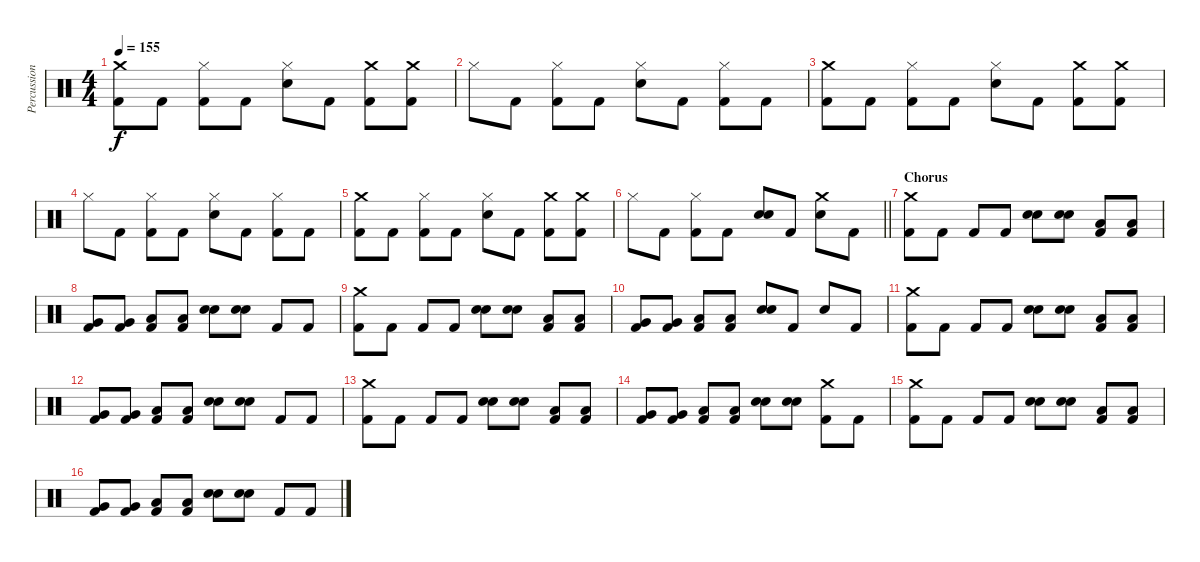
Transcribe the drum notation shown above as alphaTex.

\track ("Percussion" "Percussion") {instrument percussion}
\staff {score}
\articulation defaults
\ts (4 4)
\tempo 155
\clef neutral
\ks c
("Crash medium (hit)" "Kick (hit) 2").8{dy f} "Kick (hit) 2".8 ("Hi-Hat (closed)" "Kick (hit) 2").8 "Kick (hit) 2".8 ("Hi-Hat (closed)" "Electric Snare (hit)").8 "Kick (hit) 2".8 ("Crash medium (hit)" "Kick (hit) 2").8 ("Crash medium (hit)" "Kick (hit) 2").8 |
"Hi-Hat (closed)".8 "Kick (hit) 2".8 ("Hi-Hat (closed)" "Kick (hit) 2").8 "Kick (hit) 2".8 ("Hi-Hat (closed)" "Electric Snare (hit)").8 "Kick (hit) 2".8 ("Hi-Hat (closed)" "Kick (hit) 2").8 "Kick (hit) 2".8 |
("Crash medium (hit)" "Kick (hit) 2").8 "Kick (hit) 2".8 ("Hi-Hat (closed)" "Kick (hit) 2").8 "Kick (hit) 2".8 ("Hi-Hat (closed)" "Electric Snare (hit)").8 "Kick (hit) 2".8 ("Crash medium (hit)" "Kick (hit) 2").8 ("Crash medium (hit)" "Kick (hit) 2").8 |
"Hi-Hat (closed)".8 "Kick (hit) 2".8 ("Hi-Hat (closed)" "Kick (hit) 2").8 "Kick (hit) 2".8 ("Hi-Hat (closed)" "Electric Snare (hit)").8 "Kick (hit) 2".8 ("Hi-Hat (closed)" "Kick (hit) 2").8 "Kick (hit) 2".8 |
("Crash medium (hit)" "Kick (hit) 2").8 "Kick (hit) 2".8 ("Hi-Hat (closed)" "Kick (hit) 2").8 "Kick (hit) 2".8 ("Hi-Hat (closed)" "Electric Snare (hit)").8 "Kick (hit) 2".8 ("Crash medium (hit)" "Kick (hit) 2").8 ("Crash medium (hit)" "Kick (hit) 2").8 |
\barLineRight lightlight "Hi-Hat (closed)".8 "Kick (hit) 2".8
("Hi-Hat (closed)" "Kick (hit) 2").8 "Kick (hit) 2".8 ("Snare (hit) 2" "Electric Snare (hit)").8 "Kick (hit) 2".8 ("Crash medium (hit)" "Electric Snare (hit)").8 "Kick (hit) 2".8 |
\section ("" "Chorus")
("Crash medium (hit)" "Kick (hit) 2").8 "Kick (hit) 2".8 "Kick (hit) 2".8 "Kick (hit) 2".8 ("Snare (hit) 2" "Electric Snare (hit)").8 ("Snare (hit) 2" "Electric Snare (hit)").8 ("Low Tom (hit)" "Kick (hit) 2").8 ("Low Tom (hit)" "Kick (hit) 2").8 |
("Very Low Tom (hit)" "Kick (hit) 2").8 ("Very Low Tom (hit)" "Kick (hit) 2").8 ("Low Floor Tom (hit)" "Kick (hit) 2").8 ("Low Floor Tom (hit)" "Kick (hit) 2").8 ("Snare (hit) 2" "Electric Snare (hit)").8 ("Snare (hit) 2" "Electric Snare (hit)").8 "Kick (hit) 2".8 "Kick (hit) 2".8 |
("Crash medium (hit)" "Kick (hit) 2").8 "Kick (hit) 2".8 "Kick (hit) 2".8 "Kick (hit) 2".8 ("Snare (hit) 2" "Electric Snare (hit)").8 ("Snare (hit) 2" "Electric Snare (hit)").8 ("Low Tom (hit)" "Kick (hit) 2").8 ("Low Tom (hit)" "Kick (hit) 2").8 |
("Very Low Tom (hit)" "Kick (hit) 2").8 ("Very Low Tom (hit)" "Kick (hit) 2").8 ("Low Floor Tom (hit)" "Kick (hit) 2").8 ("Low Floor Tom (hit)" "Kick (hit) 2").8 ("Snare (hit) 2" "Electric Snare (hit)").8 "Kick (hit) 2".8 "Electric Snare (hit)".8 "Kick (hit) 2".8 |
("Crash medium (hit)" "Kick (hit) 2").8 "Kick (hit) 2".8 "Kick (hit) 2".8 "Kick (hit) 2".8 ("Snare (hit) 2" "Electric Snare (hit)").8 ("Snare (hit) 2" "Electric Snare (hit)").8 ("Low Tom (hit)" "Kick (hit) 2").8 ("Low Tom (hit)" "Kick (hit) 2").8 |
("Very Low Tom (hit)" "Kick (hit) 2").8 ("Very Low Tom (hit)" "Kick (hit) 2").8 ("Low Floor Tom (hit)" "Kick (hit) 2").8 ("Low Floor Tom (hit)" "Kick (hit) 2").8 ("Snare (hit) 2" "Electric Snare (hit)").8 ("Snare (hit) 2" "Electric Snare (hit)").8 "Kick (hit) 2".8 "Kick (hit) 2".8 |
("Crash medium (hit)" "Kick (hit) 2").8 "Kick (hit) 2".8 "Kick (hit) 2".8 "Kick (hit) 2".8 ("Snare (hit) 2" "Electric Snare (hit)").8 ("Snare (hit) 2" "Electric Snare (hit)").8 ("Low Tom (hit)" "Kick (hit) 2").8 ("Low Tom (hit)" "Kick (hit) 2").8 |
("Very Low Tom (hit)" "Kick (hit) 2").8 ("Very Low Tom (hit)" "Kick (hit) 2").8 ("Low Floor Tom (hit)" "Kick (hit) 2").8 ("Low Floor Tom (hit)" "Kick (hit) 2").8 ("Snare (hit) 2" "Electric Snare (hit)").8 ("Snare (hit) 2" "Electric Snare (hit)").8 ("Crash medium (hit)" "Kick (hit) 2").8 "Kick (hit) 2".8 |
("Crash medium (hit)" "Kick (hit) 2").8 "Kick (hit) 2".8 "Kick (hit) 2".8 "Kick (hit) 2".8 ("Snare (hit) 2" "Electric Snare (hit)").8 ("Snare (hit) 2" "Electric Snare (hit)").8 ("Low Tom (hit)" "Kick (hit) 2").8 ("Low Tom (hit)" "Kick (hit) 2").8 |
("Very Low Tom (hit)" "Kick (hit) 2").8 ("Very Low Tom (hit)" "Kick (hit) 2").8 ("Low Floor Tom (hit)" "Kick (hit) 2").8 ("Low Floor Tom (hit)" "Kick (hit) 2").8 ("Snare (hit) 2" "Electric Snare (hit)").8 ("Snare (hit) 2" "Electric Snare (hit)").8 "Kick (hit) 2".8 "Kick (hit) 2".8
